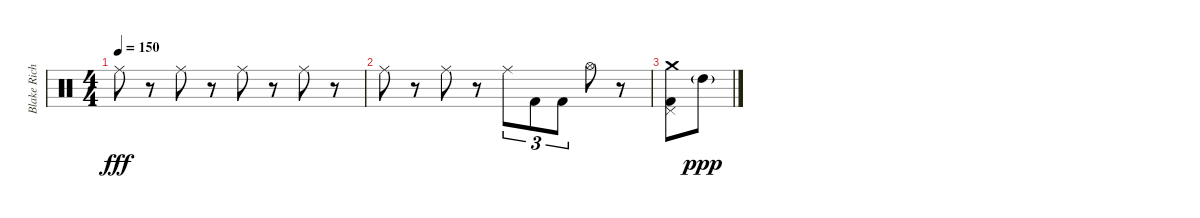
\track ("Blake Richardson" "Blake Rich") {instrument percussion}
\staff {score}
\articulation defaults
\ts (4 4)
\tempo 150
\clef neutral
\ks c "Ride (middle)".8{dy fff}
r.8 "Ride (middle)".8 r.8 "Ride (middle)".8 r.8 "Ride (middle)".8 r.8 |
"Ride (middle)".8 r.8 "Ride (middle)".8 r.8 "Ride (middle)".8{tu (3 2)} "Kick (hit) 2".8{tu (3 2)} "Kick (hit) 2".8{tu (3 2)} "Hi-Hat (open)".8 r.8 |
("Pedal Hi-Hat (hit)" "Crash medium (hit)" "Kick (hit) 2").8 "High Tom (hit)"{g}.8{dy ppp}
